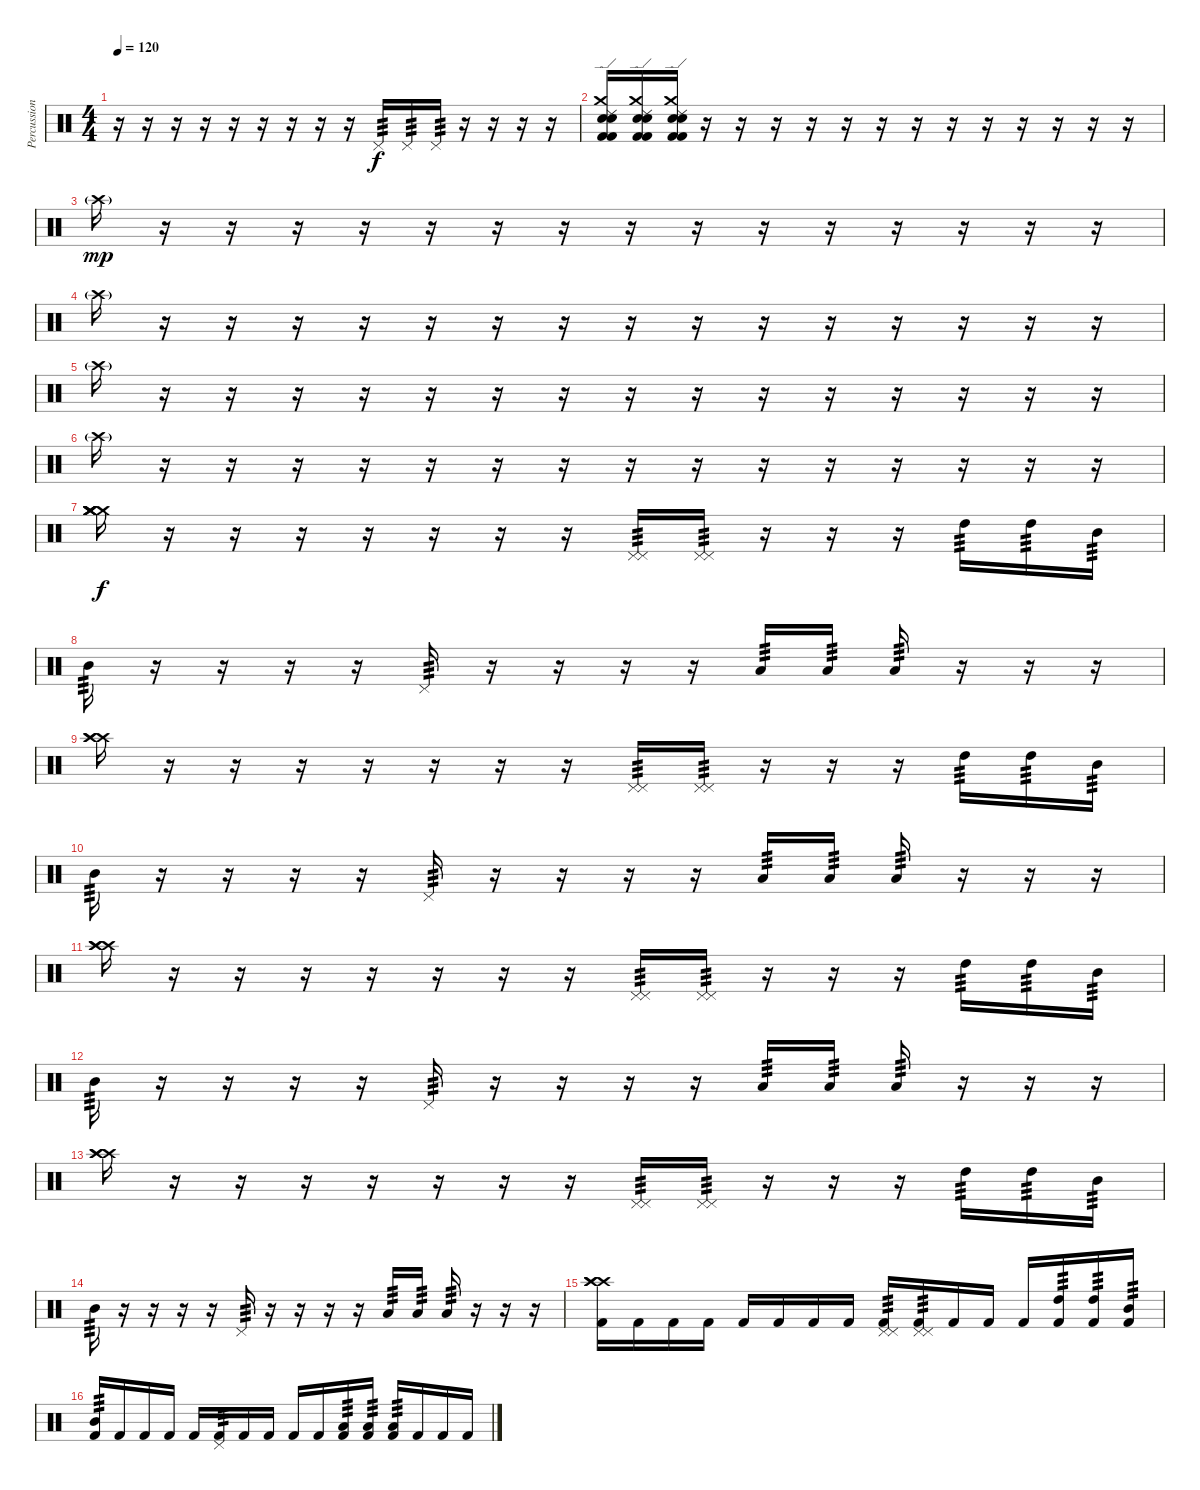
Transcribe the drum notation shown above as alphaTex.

\track ("Percussions" "Percussion") {instrument percussion}
\staff {score}
\articulation defaults
\ts (4 4)
\tempo 120
\clef neutral
\ks c
r.16{dy f} r.16 r.16 r.16 r.16 r.16 r.16 r.16 r.16 "Pedal Hi-Hat (hit)".16{tp 3} "Pedal Hi-Hat (hit)".16{tp 3} "Pedal Hi-Hat (hit)".16{tp 3} r.16 r.16 r.16 r.16 |
("Snare (hit) 2" "Snare (hit) 2" "Ride (edge) 2" "Crash medium (hit)" "Kick (hit) 2" "Kick (hit) 2").16 ("Snare (hit) 2" "Snare (hit) 2" "Ride (edge) 2" "Crash medium (hit)" "Kick (hit) 2" "Kick (hit) 2").16 ("Snare (hit) 2" "Snare (hit) 2" "Ride (edge) 2" "Crash medium (hit)" "Kick (hit) 2" "Kick (hit) 2").16 r.16 r.16 r.16 r.16 r.16 r.16 r.16 r.16 r.16 r.16 r.16 r.16 r.16 |
"Crash high (hit)"{g}.16{dy mp} r.16 r.16 r.16 r.16 r.16 r.16 r.16 r.16 r.16 r.16 r.16 r.16 r.16 r.16 r.16 |
"Crash high (hit)"{g}.16 r.16 r.16 r.16 r.16 r.16 r.16 r.16 r.16 r.16 r.16 r.16 r.16 r.16 r.16 r.16 |
"Crash high (hit)"{g}.16 r.16 r.16 r.16 r.16 r.16 r.16 r.16 r.16 r.16 r.16 r.16 r.16 r.16 r.16 r.16 |
"Crash high (hit)"{g}.16 r.16 r.16 r.16 r.16 r.16 r.16 r.16 r.16 r.16 r.16 r.16 r.16 r.16 r.16 r.16 |
("Crash medium (hit)" "Crash medium (hit)" "Crash medium (hit)" "Crash medium (hit)" "Crash medium (hit)" "Crash medium (hit)").16{dy f} r.16 r.16 r.16 r.16 r.16 r.16 r.16 ("Pedal Hi-Hat (hit)" "Pedal Hi-Hat (hit)").16{tp 3} ("Pedal Hi-Hat (hit)" "Pedal Hi-Hat (hit)").16{tp 3} r.16 r.16 r.16 "High Tom (hit)".16{tp 3} "High Tom (hit)".16{tp 3} "Mid Tom (hit)".16{tp 3} |
"Mid Tom (hit)".16{tp 3} r.16 r.16 r.16 r.16 "Pedal Hi-Hat (hit)".16{tp 3} r.16 r.16 r.16 r.16 "Low Tom (hit)".16{tp 3} "Low Tom (hit)".16{tp 3} "Low Tom (hit)".16{tp 3} r.16 r.16 r.16 |
("Crash high (hit)" "Crash high (hit)" "Crash high (hit)").16 r.16 r.16 r.16 r.16 r.16 r.16 r.16 ("Pedal Hi-Hat (hit)" "Pedal Hi-Hat (hit)").16{tp 3} ("Pedal Hi-Hat (hit)" "Pedal Hi-Hat (hit)").16{tp 3} r.16 r.16 r.16 "High Tom (hit)".16{tp 3} "High Tom (hit)".16{tp 3} "Mid Tom (hit)".16{tp 3} |
"Mid Tom (hit)".16{tp 3} r.16 r.16 r.16 r.16 "Pedal Hi-Hat (hit)".16{tp 3} r.16 r.16 r.16 r.16 "Low Tom (hit)".16{tp 3} "Low Tom (hit)".16{tp 3} "Low Tom (hit)".16{tp 3} r.16 r.16 r.16 |
("Crash high (hit)" "Crash high (hit)" "Crash high (hit)").16 r.16 r.16 r.16 r.16 r.16 r.16 r.16 ("Pedal Hi-Hat (hit)" "Pedal Hi-Hat (hit)").16{tp 3} ("Pedal Hi-Hat (hit)" "Pedal Hi-Hat (hit)").16{tp 3} r.16 r.16 r.16 "High Tom (hit)".16{tp 3} "High Tom (hit)".16{tp 3} "Mid Tom (hit)".16{tp 3} |
"Mid Tom (hit)".16{tp 3} r.16 r.16 r.16 r.16 "Pedal Hi-Hat (hit)".16{tp 3} r.16 r.16 r.16 r.16 "Low Tom (hit)".16{tp 3} "Low Tom (hit)".16{tp 3} "Low Tom (hit)".16{tp 3} r.16 r.16 r.16 |
("Crash high (hit)" "Crash high (hit)" "Crash high (hit)").16 r.16 r.16 r.16 r.16 r.16 r.16 r.16 ("Pedal Hi-Hat (hit)" "Pedal Hi-Hat (hit)").16{tp 3} ("Pedal Hi-Hat (hit)" "Pedal Hi-Hat (hit)").16{tp 3} r.16 r.16 r.16 "High Tom (hit)".16{tp 3} "High Tom (hit)".16{tp 3} "Mid Tom (hit)".16{tp 3} |
"Mid Tom (hit)".16{tp 3} r.16 r.16 r.16 r.16 "Pedal Hi-Hat (hit)".16{tp 3} r.16 r.16 r.16 r.16 "Low Tom (hit)".16{tp 3} "Low Tom (hit)".16{tp 3} "Low Tom (hit)".16{tp 3} r.16 r.16 r.16 |
("Kick (hit) 2" "Crash high (hit)" "Crash high (hit)" "Crash high (hit)").16 "Kick (hit) 2".16 "Kick (hit) 2".16 "Kick (hit) 2".16 "Kick (hit) 2".16 "Kick (hit) 2".16 "Kick (hit) 2".16 "Kick (hit) 2".16 ("Kick (hit) 2" "Pedal Hi-Hat (hit)" "Pedal Hi-Hat (hit)").16{tp 3} ("Kick (hit) 2" "Pedal Hi-Hat (hit)" "Pedal Hi-Hat (hit)").16{tp 3} "Kick (hit) 2".16 "Kick (hit) 2".16 "Kick (hit) 2".16 ("Kick (hit) 2" "High Tom (hit)").16{tp 3} ("Kick (hit) 2" "High Tom (hit)").16{tp 3} ("Kick (hit) 2" "Mid Tom (hit)").16{tp 3} |
("Kick (hit) 2" "Mid Tom (hit)").16{tp 3} "Kick (hit) 2".16 "Kick (hit) 2".16 "Kick (hit) 2".16 "Kick (hit) 2".16 ("Kick (hit) 2" "Pedal Hi-Hat (hit)").16{tp 3} "Kick (hit) 2".16 "Kick (hit) 2".16 "Kick (hit) 2".16 "Kick (hit) 2".16 ("Kick (hit) 2" "Low Tom (hit)").16{tp 3} ("Kick (hit) 2" "Low Tom (hit)").16{tp 3} ("Kick (hit) 2" "Low Tom (hit)").16{tp 3} "Kick (hit) 2".16 "Kick (hit) 2".16 "Kick (hit) 2".16
